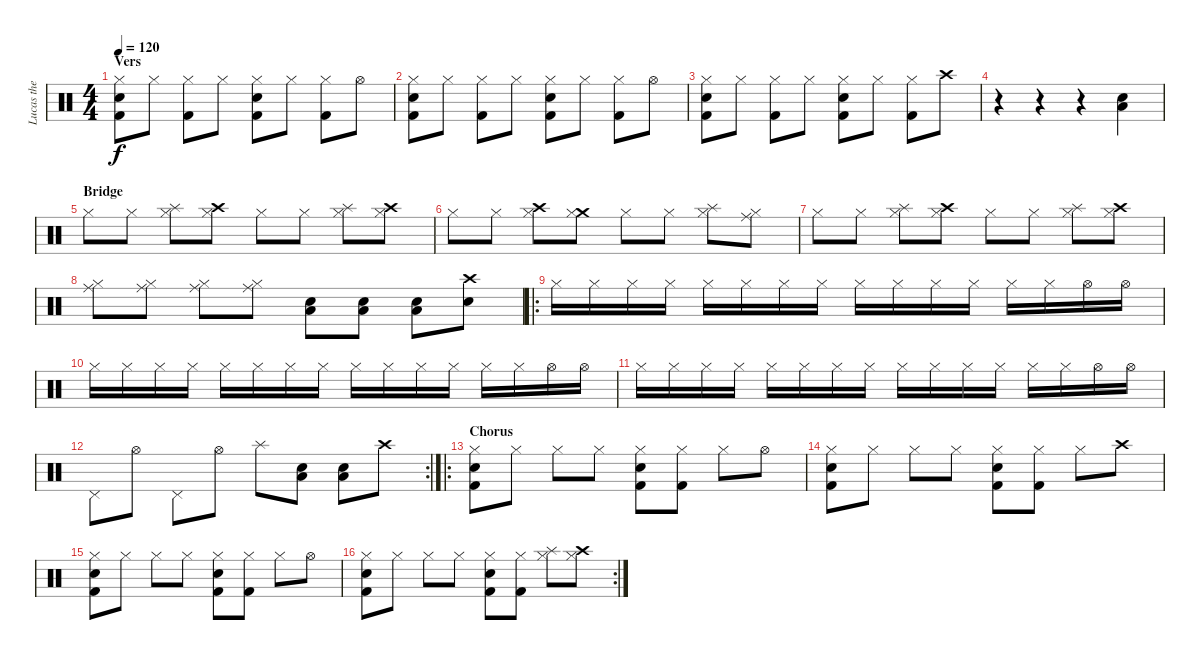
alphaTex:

\track ("Lucas the MAN" "Lucas the ") {instrument percussion}
\staff {score}
\articulation defaults
\ts (4 4)
\section ("" "Vers")
\tempo 120
\clef neutral
\ks c
("Electric Snare (hit)" "Hi-Hat (closed)" "Kick (hit) 2").8{dy f} "Hi-Hat (closed)".8 ("Hi-Hat (closed)" "Kick (hit) 2").8 "Hi-Hat (closed)".8 ("Electric Snare (hit)" "Hi-Hat (closed)" "Kick (hit) 2").8 "Hi-Hat (closed)".8 ("Hi-Hat (closed)" "Kick (hit) 2").8 "Hi-Hat (open)".8 |
("Electric Snare (hit)" "Hi-Hat (closed)" "Kick (hit) 2").8 "Hi-Hat (closed)".8 ("Hi-Hat (closed)" "Kick (hit) 2").8 "Hi-Hat (closed)".8 ("Electric Snare (hit)" "Hi-Hat (closed)" "Kick (hit) 2").8 "Hi-Hat (closed)".8 ("Hi-Hat (closed)" "Kick (hit) 2").8 "Hi-Hat (open)".8 |
("Electric Snare (hit)" "Hi-Hat (closed)" "Kick (hit) 2").8 "Hi-Hat (closed)".8 ("Hi-Hat (closed)" "Kick (hit) 2").8 "Hi-Hat (closed)".8 ("Electric Snare (hit)" "Hi-Hat (closed)" "Kick (hit) 2").8 "Hi-Hat (closed)".8 ("Hi-Hat (closed)" "Kick (hit) 2").8 "Crash high (hit)".8 |
r.4 r.4 r.4 ("Electric Snare (hit)" "Low Floor Tom (hit)").4 |
\section ("" "Bridge")
"Hi-Hat (closed)".8 "Hi-Hat (closed)".8 ("Splash (hit)" "Hi-Hat (closed)").8 ("Crash high (hit)" "Hi-Hat (closed)").8 "Hi-Hat (closed)".8 "Hi-Hat (closed)".8 ("Splash (hit)" "Hi-Hat (closed)").8 ("Crash high (hit)" "Hi-Hat (closed)").8 |
"Hi-Hat (closed)".8 "Hi-Hat (closed)".8 ("Crash high (hit)" "Hi-Hat (closed)").8 ("Crash medium (hit)" "Hi-Hat (closed)").8 "Hi-Hat (closed)".8 "Hi-Hat (closed)".8 ("Splash (hit)" "Hi-Hat (closed)").8 ("Ride (middle)" "Hi-Hat (closed)").8 |
"Hi-Hat (closed)".8 "Hi-Hat (closed)".8 ("Splash (hit)" "Hi-Hat (closed)").8 ("Crash high (hit)" "Hi-Hat (closed)").8 "Hi-Hat (closed)".8 "Hi-Hat (closed)".8 ("Splash (hit)" "Hi-Hat (closed)").8 ("Crash high (hit)" "Hi-Hat (closed)").8 |
("Ride (middle)" "Hi-Hat (closed)").8 ("Ride (middle)" "Hi-Hat (closed)").8 ("Ride (middle)" "Hi-Hat (closed)").8 ("Ride (middle)" "Hi-Hat (closed)").8 ("Low Floor Tom (hit)" "Electric Snare (hit)").8 ("Low Floor Tom (hit)" "Electric Snare (hit)").8 ("Low Floor Tom (hit)" "Electric Snare (hit)").8 ("Crash high (hit)" "Electric Snare (hit)").8 |
\ro "Hi-Hat (closed)".16 "Hi-Hat (closed)".16 "Hi-Hat (closed)".16 "Hi-Hat (closed)".16 "Hi-Hat (closed)".16 "Hi-Hat (closed)".16 "Hi-Hat (closed)".16 "Hi-Hat (closed)".16 "Hi-Hat (closed)".16 "Hi-Hat (closed)".16 "Hi-Hat (closed)".16 "Hi-Hat (closed)".16 "Hi-Hat (closed)".16 "Hi-Hat (closed)".16 "Hi-Hat (open)".16 "Hi-Hat (open)".16
|
"Hi-Hat (closed)".16 "Hi-Hat (closed)".16 "Hi-Hat (closed)".16 "Hi-Hat (closed)".16 "Hi-Hat (closed)".16 "Hi-Hat (closed)".16 "Hi-Hat (closed)".16 "Hi-Hat (closed)".16 "Hi-Hat (closed)".16 "Hi-Hat (closed)".16 "Hi-Hat (closed)".16 "Hi-Hat (closed)".16 "Hi-Hat (closed)".16 "Hi-Hat (closed)".16 "Hi-Hat (open)".16 "Hi-Hat (open)".16 |
"Hi-Hat (closed)".16 "Hi-Hat (closed)".16 "Hi-Hat (closed)".16 "Hi-Hat (closed)".16 "Hi-Hat (closed)".16 "Hi-Hat (closed)".16 "Hi-Hat (closed)".16 "Hi-Hat (closed)".16 "Hi-Hat (closed)".16 "Hi-Hat (closed)".16 "Hi-Hat (closed)".16 "Hi-Hat (closed)".16 "Hi-Hat (closed)".16 "Hi-Hat (closed)".16 "Hi-Hat (open)".16 "Hi-Hat (open)".16 |
\rc 2 "Pedal Hi-Hat (hit)".8 "Hi-Hat (open)".8 "Pedal Hi-Hat (hit)".8 "Hi-Hat (open)".8 "Splash (hit)".8
("Electric Snare (hit)" "Low Floor Tom (hit)").8 ("Electric Snare (hit)" "Low Floor Tom (hit)").8 "Crash high (hit)".8 |
\ro
\section ("" "Chorus")
("Electric Snare (hit)" "Hi-Hat (closed)" "Kick (hit) 2").8 "Hi-Hat (closed)".8 "Hi-Hat (closed)".8 "Hi-Hat (closed)".8 ("Electric Snare (hit)" "Hi-Hat (closed)" "Kick (hit) 2").8 ("Hi-Hat (closed)" "Kick (hit) 2").8 "Hi-Hat (closed)".8 "Hi-Hat (open)".8 |
("Electric Snare (hit)" "Hi-Hat (closed)" "Kick (hit) 2").8 "Hi-Hat (closed)".8 "Hi-Hat (closed)".8 "Hi-Hat (closed)".8 ("Electric Snare (hit)" "Hi-Hat (closed)" "Kick (hit) 2").8 ("Hi-Hat (closed)" "Kick (hit) 2").8 "Hi-Hat (closed)".8 "Crash high (hit)".8 |
("Electric Snare (hit)" "Hi-Hat (closed)" "Kick (hit) 2").8 "Hi-Hat (closed)".8 "Hi-Hat (closed)".8 "Hi-Hat (closed)".8 ("Electric Snare (hit)" "Hi-Hat (closed)" "Kick (hit) 2").8 ("Hi-Hat (closed)" "Kick (hit) 2").8 "Hi-Hat (closed)".8 "Hi-Hat (open)".8 |
\rc 2
("Electric Snare (hit)" "Hi-Hat (closed)" "Kick (hit) 2").8 "Hi-Hat (closed)".8 "Hi-Hat (closed)".8 "Hi-Hat (closed)".8 ("Electric Snare (hit)" "Hi-Hat (closed)" "Kick (hit) 2").8 ("Hi-Hat (closed)" "Kick (hit) 2").8 ("Splash (hit)" "Hi-Hat (closed)").8 ("Crash high (hit)" "Hi-Hat (closed)").8
